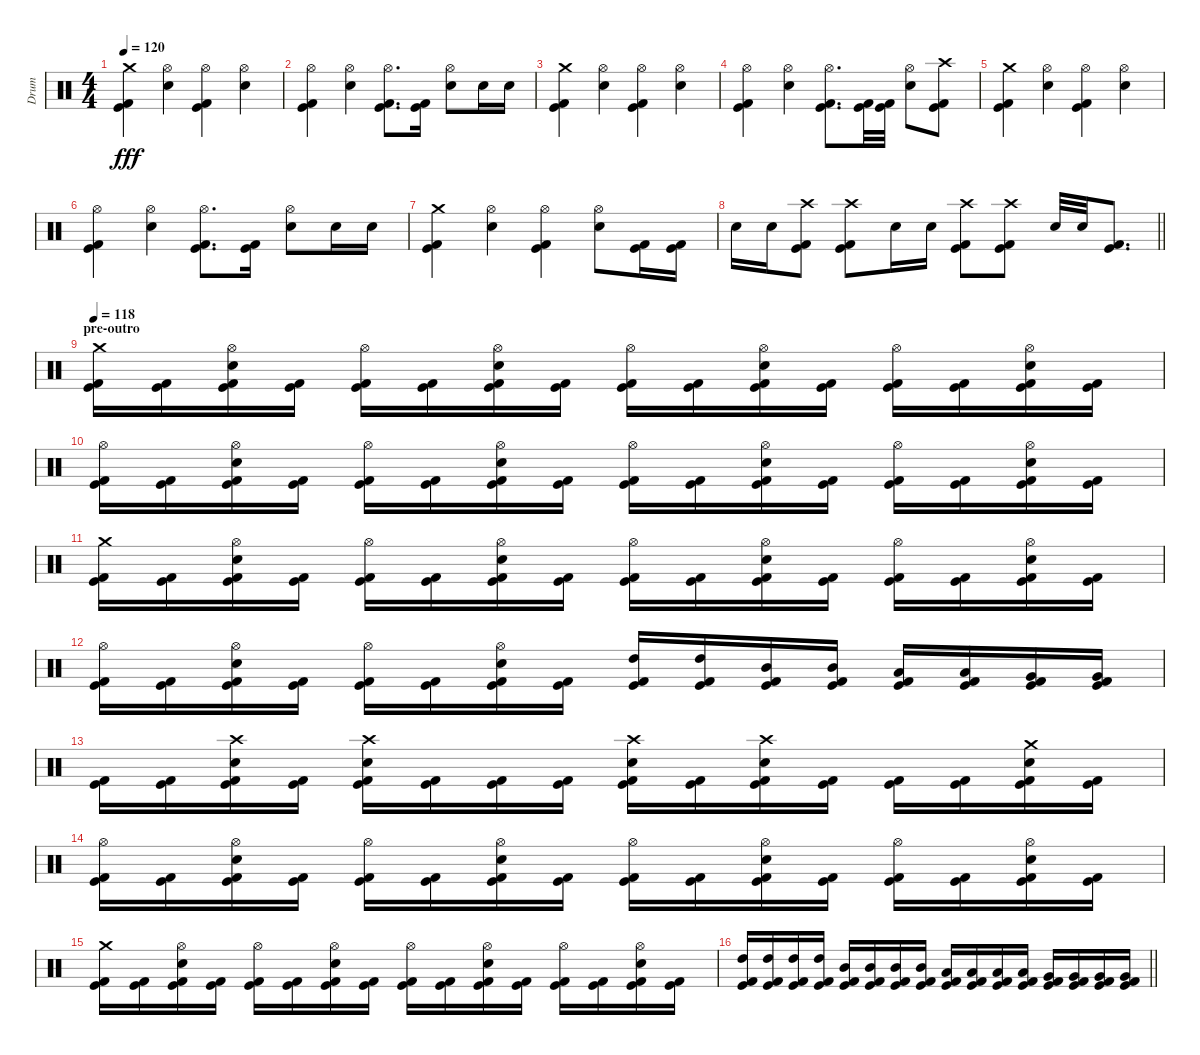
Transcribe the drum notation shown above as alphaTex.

\track ("Drum" "Drum") {instrument percussion}
\staff {score}
\articulation defaults
\ts (4 4)
\tempo 120
\clef neutral
\ks c
("Crash medium (hit)" "Kick (hit)" "Kick (hit) 2").4{dy fff} ("Electric Snare (hit)" "Hi-Hat (open)").4 ("Hi-Hat (open)" "Kick (hit)" "Kick (hit) 2").4 ("Electric Snare (hit)" "Hi-Hat (open)").4 |
("Hi-Hat (open)" "Kick (hit)" "Kick (hit) 2").4 ("Electric Snare (hit)" "Hi-Hat (open)").4 ("Hi-Hat (open)" "Kick (hit)" "Kick (hit) 2").8{d} ("Kick (hit)" "Kick (hit) 2").16 ("Electric Snare (hit)" "Hi-Hat (open)").8 "Electric Snare (hit)".16 "Electric Snare (hit)".16 |
("Crash medium (hit)" "Kick (hit)" "Kick (hit) 2").4 ("Electric Snare (hit)" "Hi-Hat (open)").4 ("Hi-Hat (open)" "Kick (hit)" "Kick (hit) 2").4 ("Electric Snare (hit)" "Hi-Hat (open)").4 |
("Hi-Hat (open)" "Kick (hit)" "Kick (hit) 2").4 ("Electric Snare (hit)" "Hi-Hat (open)").4 ("Hi-Hat (open)" "Kick (hit)" "Kick (hit) 2").8{d} ("Kick (hit)" "Kick (hit) 2").32 ("Kick (hit)" "Kick (hit) 2").32 ("Electric Snare (hit)" "Hi-Hat (open)").8 ("Crash high (hit)" "Kick (hit)" "Kick (hit) 2").8 |
("Crash medium (hit)" "Kick (hit)" "Kick (hit) 2").4 ("Electric Snare (hit)" "Hi-Hat (open)").4 ("Hi-Hat (open)" "Kick (hit)" "Kick (hit) 2").4 ("Electric Snare (hit)" "Hi-Hat (open)").4 |
("Hi-Hat (open)" "Kick (hit)" "Kick (hit) 2").4 ("Electric Snare (hit)" "Hi-Hat (open)").4 ("Hi-Hat (open)" "Kick (hit)" "Kick (hit) 2").8{d} ("Kick (hit)" "Kick (hit) 2").16 ("Electric Snare (hit)" "Hi-Hat (open)").8 "Electric Snare (hit)".16 "Electric Snare (hit)".16 |
("Crash medium (hit)" "Kick (hit)" "Kick (hit) 2").4 ("Electric Snare (hit)" "Hi-Hat (open)").4 ("Hi-Hat (open)" "Kick (hit)" "Kick (hit) 2").4 ("Electric Snare (hit)" "Hi-Hat (open)").8 ("Kick (hit)" "Kick (hit) 2").16 ("Kick (hit)" "Kick (hit) 2").16 |
\barLineRight lightlight "Electric Snare (hit)".16 "Electric Snare (hit)".16
("Crash high (hit)" "Kick (hit)" "Kick (hit) 2").8 ("Crash high (hit)" "Kick (hit)" "Kick (hit) 2").8 "Electric Snare (hit)".16 "Electric Snare (hit)".16 ("Crash high (hit)" "Kick (hit)" "Kick (hit) 2").8 ("Crash high (hit)" "Kick (hit)" "Kick (hit) 2").8 "Electric Snare (hit)".32 "Electric Snare (hit)".32 ("Kick (hit)" "Kick (hit) 2").8{d} |
\section ("" "pre-outro")
\tempo 118
("Crash medium (hit)" "Kick (hit)" "Kick (hit) 2").16 ("Kick (hit)" "Kick (hit) 2").16 ("Hi-Hat (open)" "Electric Snare (hit)" "Kick (hit)" "Kick (hit) 2").16 ("Kick (hit)" "Kick (hit) 2").16 ("Hi-Hat (open)" "Kick (hit)" "Kick (hit) 2").16 ("Kick (hit)" "Kick (hit) 2").16 ("Hi-Hat (open)" "Electric Snare (hit)" "Kick (hit)" "Kick (hit) 2").16 ("Kick (hit)" "Kick (hit) 2").16 ("Hi-Hat (open)" "Kick (hit)" "Kick (hit) 2").16 ("Kick (hit)" "Kick (hit) 2").16 ("Hi-Hat (open)" "Electric Snare (hit)" "Kick (hit)" "Kick (hit) 2").16 ("Kick (hit)" "Kick (hit) 2").16 ("Hi-Hat (open)" "Kick (hit)" "Kick (hit) 2").16 ("Kick (hit)" "Kick (hit) 2").16 ("Hi-Hat (open)" "Electric Snare (hit)" "Kick (hit)" "Kick (hit) 2").16 ("Kick (hit)" "Kick (hit) 2").16 |
("Hi-Hat (open)" "Kick (hit)" "Kick (hit) 2").16 ("Kick (hit)" "Kick (hit) 2").16 ("Hi-Hat (open)" "Electric Snare (hit)" "Kick (hit)" "Kick (hit) 2").16 ("Kick (hit)" "Kick (hit) 2").16 ("Hi-Hat (open)" "Kick (hit)" "Kick (hit) 2").16 ("Kick (hit)" "Kick (hit) 2").16 ("Hi-Hat (open)" "Electric Snare (hit)" "Kick (hit)" "Kick (hit) 2").16 ("Kick (hit)" "Kick (hit) 2").16 ("Hi-Hat (open)" "Kick (hit)" "Kick (hit) 2").16 ("Kick (hit)" "Kick (hit) 2").16 ("Hi-Hat (open)" "Electric Snare (hit)" "Kick (hit)" "Kick (hit) 2").16 ("Kick (hit)" "Kick (hit) 2").16 ("Hi-Hat (open)" "Kick (hit)" "Kick (hit) 2").16 ("Kick (hit)" "Kick (hit) 2").16 ("Hi-Hat (open)" "Electric Snare (hit)" "Kick (hit)" "Kick (hit) 2").16 ("Kick (hit)" "Kick (hit) 2").16 |
("Crash medium (hit)" "Kick (hit)" "Kick (hit) 2").16 ("Kick (hit)" "Kick (hit) 2").16 ("Hi-Hat (open)" "Electric Snare (hit)" "Kick (hit)" "Kick (hit) 2").16 ("Kick (hit)" "Kick (hit) 2").16 ("Hi-Hat (open)" "Kick (hit)" "Kick (hit) 2").16 ("Kick (hit)" "Kick (hit) 2").16 ("Hi-Hat (open)" "Electric Snare (hit)" "Kick (hit)" "Kick (hit) 2").16 ("Kick (hit)" "Kick (hit) 2").16 ("Hi-Hat (open)" "Kick (hit)" "Kick (hit) 2").16 ("Kick (hit)" "Kick (hit) 2").16 ("Hi-Hat (open)" "Electric Snare (hit)" "Kick (hit)" "Kick (hit) 2").16 ("Kick (hit)" "Kick (hit) 2").16 ("Hi-Hat (open)" "Kick (hit)" "Kick (hit) 2").16 ("Kick (hit)" "Kick (hit) 2").16 ("Hi-Hat (open)" "Electric Snare (hit)" "Kick (hit)" "Kick (hit) 2").16 ("Kick (hit)" "Kick (hit) 2").16 |
("Hi-Hat (open)" "Kick (hit)" "Kick (hit) 2").16 ("Kick (hit)" "Kick (hit) 2").16 ("Hi-Hat (open)" "Electric Snare (hit)" "Kick (hit)" "Kick (hit) 2").16 ("Kick (hit)" "Kick (hit) 2").16 ("Hi-Hat (open)" "Kick (hit)" "Kick (hit) 2").16 ("Kick (hit)" "Kick (hit) 2").16 ("Hi-Hat (open)" "Electric Snare (hit)" "Kick (hit)" "Kick (hit) 2").16 ("Kick (hit)" "Kick (hit) 2").16 ("High Tom (hit)" "Kick (hit)" "Kick (hit) 2").16 ("High Tom (hit)" "Kick (hit)" "Kick (hit) 2").16 ("Mid Tom (hit)" "Kick (hit)" "Kick (hit) 2").16 ("Mid Tom (hit)" "Kick (hit)" "Kick (hit) 2").16 ("Low Tom (hit)" "Kick (hit)" "Kick (hit) 2").16 ("Low Tom (hit)" "Kick (hit)" "Kick (hit) 2").16 ("Very Low Tom (hit)" "Kick (hit)" "Kick (hit) 2").16 ("Very Low Tom (hit)" "Kick (hit)" "Kick (hit) 2").16 |
("Kick (hit)" "Kick (hit) 2").16 ("Kick (hit)" "Kick (hit) 2").16 ("Crash high (hit)" "Electric Snare (hit)" "Kick (hit)" "Kick (hit) 2").16 ("Kick (hit)" "Kick (hit) 2").16 ("Crash high (hit)" "Electric Snare (hit)" "Kick (hit)" "Kick (hit) 2").16 ("Kick (hit)" "Kick (hit) 2").16 ("Kick (hit)" "Kick (hit) 2").16 ("Kick (hit)" "Kick (hit) 2").16 ("Crash high (hit)" "Electric Snare (hit)" "Kick (hit)" "Kick (hit) 2").16 ("Kick (hit)" "Kick (hit) 2").16 ("Crash high (hit)" "Electric Snare (hit)" "Kick (hit)" "Kick (hit) 2").16 ("Kick (hit)" "Kick (hit) 2").16 ("Kick (hit)" "Kick (hit) 2").16 ("Kick (hit)" "Kick (hit) 2").16 ("Crash medium (hit)" "Electric Snare (hit)" "Kick (hit)" "Kick (hit) 2").16 ("Kick (hit)" "Kick (hit) 2").16 |
("Hi-Hat (open)" "Kick (hit)" "Kick (hit) 2").16 ("Kick (hit)" "Kick (hit) 2").16 ("Hi-Hat (open)" "Electric Snare (hit)" "Kick (hit)" "Kick (hit) 2").16 ("Kick (hit)" "Kick (hit) 2").16 ("Hi-Hat (open)" "Kick (hit)" "Kick (hit) 2").16 ("Kick (hit)" "Kick (hit) 2").16 ("Hi-Hat (open)" "Electric Snare (hit)" "Kick (hit)" "Kick (hit) 2").16 ("Kick (hit)" "Kick (hit) 2").16 ("Hi-Hat (open)" "Kick (hit)" "Kick (hit) 2").16 ("Kick (hit)" "Kick (hit) 2").16 ("Hi-Hat (open)" "Electric Snare (hit)" "Kick (hit)" "Kick (hit) 2").16 ("Kick (hit)" "Kick (hit) 2").16 ("Hi-Hat (open)" "Kick (hit)" "Kick (hit) 2").16 ("Kick (hit)" "Kick (hit) 2").16 ("Hi-Hat (open)" "Electric Snare (hit)" "Kick (hit)" "Kick (hit) 2").16 ("Kick (hit)" "Kick (hit) 2").16 |
("Crash medium (hit)" "Kick (hit)" "Kick (hit) 2").16 ("Kick (hit)" "Kick (hit) 2").16 ("Hi-Hat (open)" "Electric Snare (hit)" "Kick (hit)" "Kick (hit) 2").16 ("Kick (hit)" "Kick (hit) 2").16 ("Hi-Hat (open)" "Kick (hit)" "Kick (hit) 2").16 ("Kick (hit)" "Kick (hit) 2").16 ("Hi-Hat (open)" "Electric Snare (hit)" "Kick (hit)" "Kick (hit) 2").16 ("Kick (hit)" "Kick (hit) 2").16 ("Hi-Hat (open)" "Kick (hit)" "Kick (hit) 2").16 ("Kick (hit)" "Kick (hit) 2").16 ("Hi-Hat (open)" "Electric Snare (hit)" "Kick (hit)" "Kick (hit) 2").16 ("Kick (hit)" "Kick (hit) 2").16 ("Hi-Hat (open)" "Kick (hit)" "Kick (hit) 2").16 ("Kick (hit)" "Kick (hit) 2").16 ("Hi-Hat (open)" "Electric Snare (hit)" "Kick (hit)" "Kick (hit) 2").16 ("Kick (hit)" "Kick (hit) 2").16 |
\barLineRight lightlight
("High Tom (hit)" "Kick (hit)" "Kick (hit) 2").16 ("High Tom (hit)" "Kick (hit)" "Kick (hit) 2").16 ("High Tom (hit)" "Kick (hit)" "Kick (hit) 2").16 ("High Tom (hit)" "Kick (hit)" "Kick (hit) 2").16 ("Mid Tom (hit)" "Kick (hit)" "Kick (hit) 2").16 ("Mid Tom (hit)" "Kick (hit)" "Kick (hit) 2").16 ("Mid Tom (hit)" "Kick (hit)" "Kick (hit) 2").16 ("Mid Tom (hit)" "Kick (hit)" "Kick (hit) 2").16 ("Low Tom (hit)" "Kick (hit)" "Kick (hit) 2").16 ("Low Tom (hit)" "Kick (hit)" "Kick (hit) 2").16 ("Low Tom (hit)" "Kick (hit)" "Kick (hit) 2").16 ("Low Tom (hit)" "Kick (hit)" "Kick (hit) 2").16 ("Very Low Tom (hit)" "Kick (hit)" "Kick (hit) 2").16 ("Very Low Tom (hit)" "Kick (hit)" "Kick (hit) 2").16 ("Very Low Tom (hit)" "Kick (hit)" "Kick (hit) 2").16 ("Very Low Tom (hit)" "Kick (hit)" "Kick (hit) 2").16
